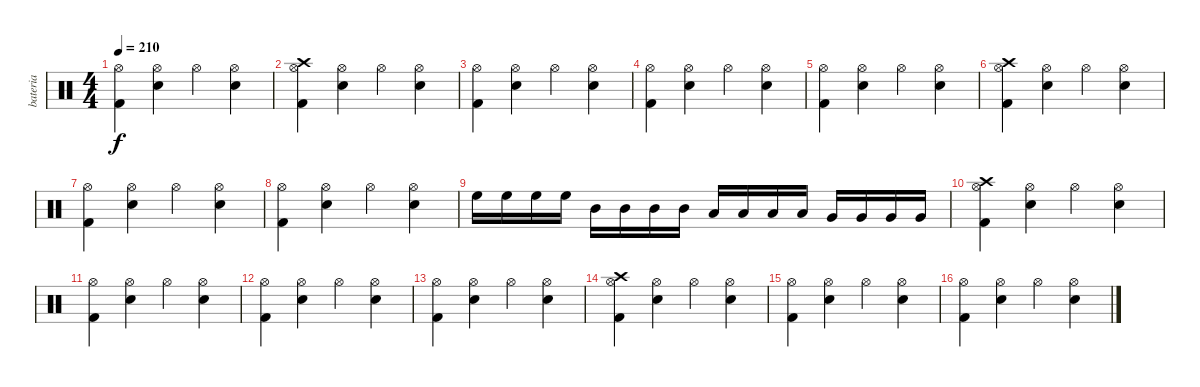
\track ("bateria" "bateria") {instrument percussion}
\staff {score}
\articulation defaults
\ts (4 4)
\tempo 210
\clef neutral
\ks c
("Hi-Hat (open)" "Kick (hit) 2").4{dy f} ("Hi-Hat (open)" "Electric Snare (hit)").4 "Hi-Hat (open)".4 ("Hi-Hat (open)" "Electric Snare (hit)").4 |
("Hi-Hat (open)" "Kick (hit) 2" "Crash high (hit)").4 ("Hi-Hat (open)" "Electric Snare (hit)").4 "Hi-Hat (open)".4 ("Hi-Hat (open)" "Electric Snare (hit)").4 |
("Hi-Hat (open)" "Kick (hit) 2").4 ("Hi-Hat (open)" "Electric Snare (hit)").4 "Hi-Hat (open)".4 ("Hi-Hat (open)" "Electric Snare (hit)").4 |
("Hi-Hat (open)" "Kick (hit) 2").4 ("Hi-Hat (open)" "Electric Snare (hit)").4 "Hi-Hat (open)".4 ("Hi-Hat (open)" "Electric Snare (hit)").4 |
("Hi-Hat (open)" "Kick (hit) 2").4 ("Hi-Hat (open)" "Electric Snare (hit)").4 "Hi-Hat (open)".4 ("Hi-Hat (open)" "Electric Snare (hit)").4 |
("Hi-Hat (open)" "Kick (hit) 2" "Crash high (hit)").4 ("Hi-Hat (open)" "Electric Snare (hit)").4 "Hi-Hat (open)".4 ("Hi-Hat (open)" "Electric Snare (hit)").4 |
("Hi-Hat (open)" "Kick (hit) 2").4 ("Hi-Hat (open)" "Electric Snare (hit)").4 "Hi-Hat (open)".4 ("Hi-Hat (open)" "Electric Snare (hit)").4 |
("Hi-Hat (open)" "Kick (hit) 2").4 ("Hi-Hat (open)" "Electric Snare (hit)").4 "Hi-Hat (open)".4 ("Hi-Hat (open)" "Electric Snare (hit)").4 |
"High Floor Tom (hit)".16 "High Floor Tom (hit)".16 "High Floor Tom (hit)".16 "High Floor Tom (hit)".16 "Mid Tom (hit)".16 "Mid Tom (hit)".16 "Mid Tom (hit)".16 "Mid Tom (hit)".16 "Low Tom (hit)".16 "Low Tom (hit)".16 "Low Tom (hit)".16 "Low Tom (hit)".16 "Very Low Tom (hit)".16 "Very Low Tom (hit)".16 "Very Low Tom (hit)".16 "Very Low Tom (hit)".16 |
("Hi-Hat (open)" "Kick (hit) 2" "Crash high (hit)").4 ("Hi-Hat (open)" "Electric Snare (hit)").4 "Hi-Hat (open)".4 ("Hi-Hat (open)" "Electric Snare (hit)").4 |
("Hi-Hat (open)" "Kick (hit) 2").4 ("Hi-Hat (open)" "Electric Snare (hit)").4 "Hi-Hat (open)".4 ("Hi-Hat (open)" "Electric Snare (hit)").4 |
("Hi-Hat (open)" "Kick (hit) 2").4 ("Hi-Hat (open)" "Electric Snare (hit)").4 "Hi-Hat (open)".4 ("Hi-Hat (open)" "Electric Snare (hit)").4 |
("Hi-Hat (open)" "Kick (hit) 2").4 ("Hi-Hat (open)" "Electric Snare (hit)").4 "Hi-Hat (open)".4 ("Hi-Hat (open)" "Electric Snare (hit)").4 |
("Hi-Hat (open)" "Kick (hit) 2" "Crash high (hit)").4 ("Hi-Hat (open)" "Electric Snare (hit)").4 "Hi-Hat (open)".4 ("Hi-Hat (open)" "Electric Snare (hit)").4 |
("Hi-Hat (open)" "Kick (hit) 2").4 ("Hi-Hat (open)" "Electric Snare (hit)").4 "Hi-Hat (open)".4 ("Hi-Hat (open)" "Electric Snare (hit)").4 |
("Hi-Hat (open)" "Kick (hit) 2").4 ("Hi-Hat (open)" "Electric Snare (hit)").4 "Hi-Hat (open)".4 ("Hi-Hat (open)" "Electric Snare (hit)").4
